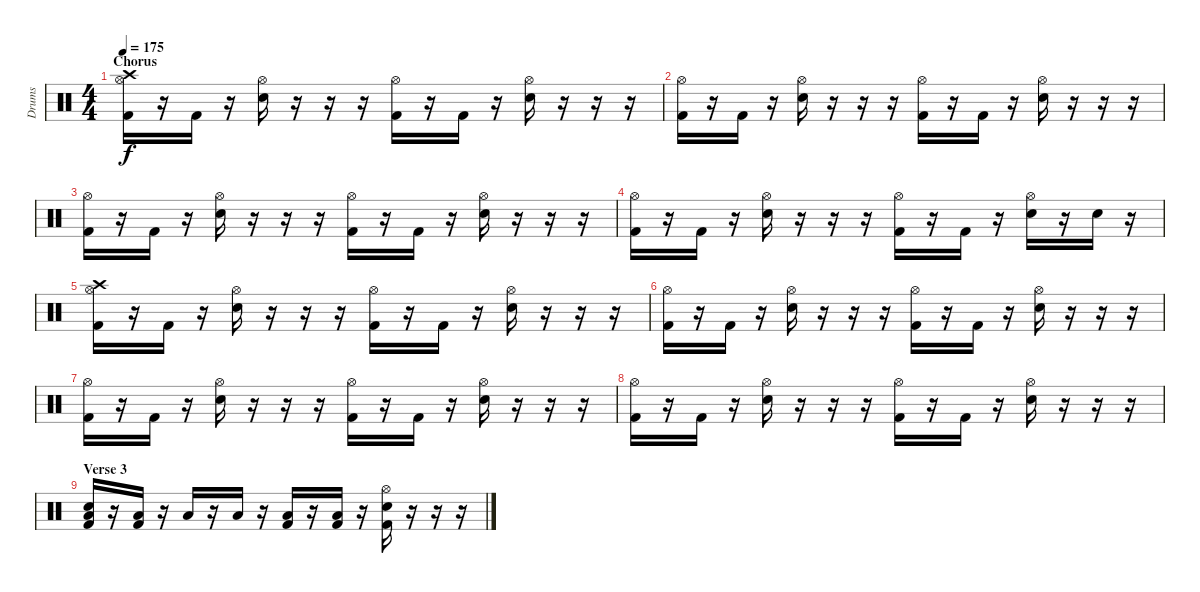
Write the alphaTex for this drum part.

\track ("Drums" "Drums") {instrument percussion}
\staff {score}
\articulation defaults
\ts (4 4)
\section ("" "Chorus")
\tempo 175
\clef neutral
\ks c
("Crash high (hit)" "Hi-Hat (open)" "Kick (hit) 2").16{dy f} r.16 "Kick (hit) 2".16 r.16 ("Hi-Hat (open)" "Snare (hit) 2").16 r.16 r.16 r.16 ("Hi-Hat (open)" "Kick (hit) 2").16 r.16 "Kick (hit) 2".16 r.16 ("Hi-Hat (open)" "Snare (hit) 2").16 r.16 r.16 r.16 |
("Hi-Hat (open)" "Kick (hit) 2").16 r.16 "Kick (hit) 2".16 r.16 ("Hi-Hat (open)" "Snare (hit) 2").16 r.16 r.16 r.16 ("Hi-Hat (open)" "Kick (hit) 2").16 r.16 "Kick (hit) 2".16 r.16 ("Hi-Hat (open)" "Snare (hit) 2").16 r.16 r.16 r.16 |
("Hi-Hat (open)" "Kick (hit) 2").16 r.16 "Kick (hit) 2".16 r.16 ("Hi-Hat (open)" "Snare (hit) 2").16 r.16 r.16 r.16 ("Hi-Hat (open)" "Kick (hit) 2").16 r.16 "Kick (hit) 2".16 r.16 ("Hi-Hat (open)" "Snare (hit) 2").16 r.16 r.16 r.16 |
("Hi-Hat (open)" "Kick (hit) 2").16 r.16 "Kick (hit) 2".16 r.16 ("Hi-Hat (open)" "Snare (hit) 2").16 r.16 r.16 r.16 ("Hi-Hat (open)" "Kick (hit) 2").16 r.16 "Kick (hit) 2".16 r.16 ("Hi-Hat (open)" "Snare (hit) 2").16 r.16 "Snare (hit) 2".16 r.16 |
("Crash high (hit)" "Hi-Hat (open)" "Kick (hit) 2").16 r.16 "Kick (hit) 2".16 r.16 ("Hi-Hat (open)" "Snare (hit) 2").16 r.16 r.16 r.16 ("Hi-Hat (open)" "Kick (hit) 2").16 r.16 "Kick (hit) 2".16 r.16 ("Hi-Hat (open)" "Snare (hit) 2").16 r.16 r.16 r.16 |
("Hi-Hat (open)" "Kick (hit) 2").16 r.16 "Kick (hit) 2".16 r.16 ("Hi-Hat (open)" "Snare (hit) 2").16 r.16 r.16 r.16 ("Hi-Hat (open)" "Kick (hit) 2").16 r.16 "Kick (hit) 2".16 r.16 ("Hi-Hat (open)" "Snare (hit) 2").16 r.16 r.16 r.16 |
("Hi-Hat (open)" "Kick (hit) 2").16 r.16 "Kick (hit) 2".16 r.16 ("Hi-Hat (open)" "Snare (hit) 2").16 r.16 r.16 r.16 ("Hi-Hat (open)" "Kick (hit) 2").16 r.16 "Kick (hit) 2".16 r.16 ("Hi-Hat (open)" "Snare (hit) 2").16 r.16 r.16 r.16 |
("Hi-Hat (open)" "Kick (hit) 2").16 r.16 "Kick (hit) 2".16 r.16 ("Hi-Hat (open)" "Snare (hit) 2").16 r.16 r.16 r.16 ("Hi-Hat (open)" "Kick (hit) 2").16 r.16 "Kick (hit) 2".16 r.16 ("Hi-Hat (open)" "Snare (hit) 2").16 r.16 r.16 r.16 |
\section ("" "Verse 3")
("Low Floor Tom (hit)" "Snare (hit) 2" "Kick (hit) 2").16 r.16 ("Low Floor Tom (hit)" "Kick (hit) 2").16 r.16 "Low Floor Tom (hit)".16 r.16 "Low Floor Tom (hit)".16 r.16 ("Low Floor Tom (hit)" "Kick (hit) 2").16 r.16 ("Low Floor Tom (hit)" "Kick (hit) 2").16 r.16 ("Hi-Hat (open)" "Snare (hit) 2" "Kick (hit) 2").16 r.16 r.16 r.16
